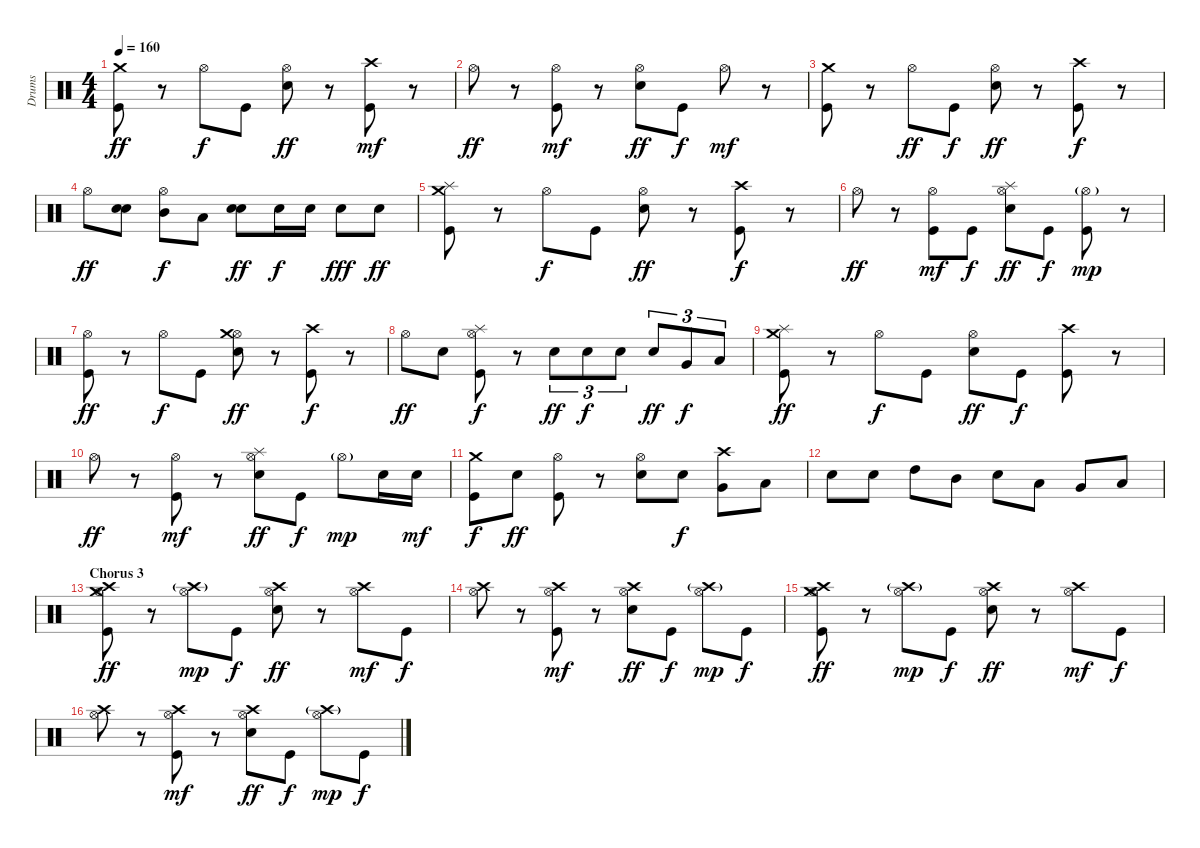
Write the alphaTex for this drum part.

\track ("Drums" "Drums") {instrument percussion}
\staff {score}
\articulation defaults
\ts (4 4)
\tempo 160
\clef neutral
\ks c
("Kick (hit)" "Crash medium (hit)").8{dy ff} r.8 "Hi-Hat (open)".8{dy f} "Kick (hit)".8 ("Electric Snare (hit)" "Hi-Hat (open)").8{dy ff} r.8 ("Kick (hit)" "Crash high (hit)").8{dy mf} r.8 |
"Hi-Hat (open)".8{dy ff} r.8 ("Kick (hit)" "Hi-Hat (open)").8{dy mf} r.8 ("Electric Snare (hit)" "Hi-Hat (open)").8{dy ff} "Kick (hit)".8{dy f} "Hi-Hat (open)".8{dy mf} r.8 |
("Kick (hit)" "Crash medium (hit)").8 r.8 "Hi-Hat (open)".8{dy ff} "Kick (hit)".8{dy f} ("Electric Snare (hit)" "Hi-Hat (open)").8{dy ff} r.8 ("Kick (hit)" "Crash high (hit)").8{dy f} r.8 |
"Hi-Hat (open)".8{dy ff} ("Electric Snare (hit)" "Electric Snare (hit)").8 ("Mid Tom (hit)" "Hi-Hat (open)").8{dy f} "Low Tom (hit)".8 ("Electric Snare (hit)" "Electric Snare (hit)").8{dy ff} "Electric Snare (hit)".16{dy f} "Electric Snare (hit)".16 "Electric Snare (hit)".8{dy fff} "Electric Snare (hit)".8{dy ff} |
("Kick (hit)" "Splash (hit)" "Crash medium (hit)").8 r.8 "Hi-Hat (open)".8{dy f} "Kick (hit)".8 ("Electric Snare (hit)" "Hi-Hat (open)").8{dy ff} r.8 ("Kick (hit)" "Crash high (hit)").8{dy f} r.8 |
"Hi-Hat (open)".8{dy ff} r.8 ("Kick (hit)" "Hi-Hat (open)").8{dy mf} "Kick (hit)".8{dy f} ("Electric Snare (hit)" "Hi-Hat (open)" "Splash (hit)").8{dy ff} "Kick (hit)".8{dy f} ("Kick (hit)" "Hi-Hat (open)"{g}).8{dy mp} r.8 |
("Kick (hit)" "Hi-Hat (open)").8{dy ff} r.8 "Hi-Hat (open)".8{dy f} "Kick (hit)".8 ("Electric Snare (hit)" "Hi-Hat (open)" "Crash medium (hit)").8{dy ff} r.8 ("Kick (hit)" "Crash high (hit)").8{dy f} r.8 |
"Hi-Hat (open)".8{dy ff} "Electric Snare (hit)".8 ("Kick (hit)" "Hi-Hat (open)" "Splash (hit)").8{dy f} r.8 "Electric Snare (hit)".8{tu (3 2) dy ff} "Electric Snare (hit)".8{tu (3 2) dy f} "Electric Snare (hit)".8{tu (3 2)} "Electric Snare (hit)".8{tu (3 2) dy ff} "Very Low Tom (hit)".8{tu (3 2) dy f} "Low Floor Tom (hit)".8{tu (3 2)} |
("Kick (hit)" "Splash (hit)" "Crash medium (hit)").8{dy ff} r.8 "Hi-Hat (open)".8{dy f} "Kick (hit)".8 ("Electric Snare (hit)" "Hi-Hat (open)").8{dy ff} "Kick (hit)".8{dy f} ("Kick (hit)" "Crash high (hit)").8 r.8 |
"Hi-Hat (open)".8{dy ff} r.8 ("Kick (hit)" "Hi-Hat (open)").8{dy mf} r.8 ("Electric Snare (hit)" "Hi-Hat (open)" "Splash (hit)").8{dy ff} "Kick (hit)".8{dy f} "Hi-Hat (open)"{g}.8{dy mp} "Electric Snare (hit)".16 "Electric Snare (hit)".16{dy mf} |
("Kick (hit)" "Crash medium (hit)").8{dy f} "Electric Snare (hit)".8{dy ff} ("Kick (hit)" "Hi-Hat (open)").8 r.8 ("Electric Snare (hit)" "Hi-Hat (open)").8 "Electric Snare (hit)".8{dy f} ("Very Low Tom (hit)" "Crash high (hit)").8 "Low Floor Tom (hit)".8 |
"Electric Snare (hit)".8 "Electric Snare (hit)".8 "High Tom (hit)".8 "Mid Tom (hit)".8 "Electric Snare (hit)".8 "Low Tom (hit)".8 "Very Low Tom (hit)".8 "Low Floor Tom (hit)".8 |
\section ("" "Chorus 3")
("Kick (hit)" "Hi-Hat (open)" "Crash high (hit)" "Crash medium (hit)").8{dy ff} r.8 ("Hi-Hat (open)" "Crash high (hit)"{g}).8{dy mp} "Kick (hit)".8{dy f} ("Electric Snare (hit)" "Hi-Hat (open)" "Crash high (hit)").8{dy ff} r.8 ("Hi-Hat (open)" "Crash high (hit)").8{dy mf} "Kick (hit)".8{dy f} |
("Hi-Hat (open)" "Crash high (hit)").8 r.8 ("Kick (hit)" "Hi-Hat (open)" "Crash high (hit)").8{dy mf} r.8 ("Electric Snare (hit)" "Hi-Hat (open)" "Crash high (hit)").8{dy ff} "Kick (hit)".8{dy f} ("Hi-Hat (open)" "Crash high (hit)"{g}).8{dy mp} "Kick (hit)".8{dy f} |
("Kick (hit)" "Hi-Hat (open)" "Crash high (hit)" "Crash medium (hit)").8{dy ff} r.8 ("Hi-Hat (open)" "Crash high (hit)"{g}).8{dy mp} "Kick (hit)".8{dy f} ("Electric Snare (hit)" "Hi-Hat (open)" "Crash high (hit)").8{dy ff} r.8 ("Hi-Hat (open)" "Crash high (hit)").8{dy mf} "Kick (hit)".8{dy f} |
("Hi-Hat (open)" "Crash high (hit)").8 r.8 ("Kick (hit)" "Hi-Hat (open)" "Crash high (hit)").8{dy mf} r.8 ("Electric Snare (hit)" "Hi-Hat (open)" "Crash high (hit)").8{dy ff} "Kick (hit)".8{dy f} ("Hi-Hat (open)" "Crash high (hit)"{g}).8{dy mp} "Kick (hit)".8{dy f}
